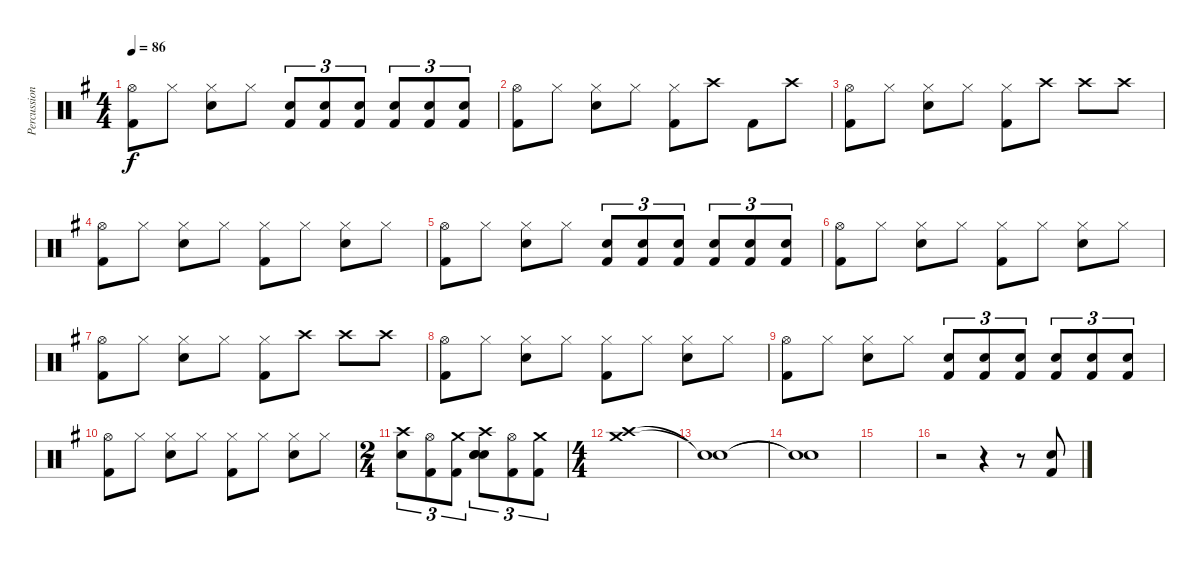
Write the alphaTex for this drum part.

\track ("Percussion" "Percussion") {instrument percussion}
\staff {score}
\articulation defaults
\ts (4 4)
\tempo 86
\clef neutral
\ks eminor
("Hi-Hat (open)" "Kick (hit) 2").8{dy f} "Hi-Hat (closed)".8 ("Hi-Hat (closed)" "Snare (hit) 2").8 "Hi-Hat (closed)".8 ("Snare (hit) 2" "Kick (hit) 2").8{tu (3 2)} ("Snare (hit) 2" "Kick (hit) 2").8{tu (3 2)} ("Snare (hit) 2" "Kick (hit) 2").8{tu (3 2)} ("Snare (hit) 2" "Kick (hit) 2").8{tu (3 2)} ("Snare (hit) 2" "Kick (hit) 2").8{tu (3 2)} ("Snare (hit) 2" "Kick (hit) 2").8{tu (3 2)} |
("Hi-Hat (open)" "Kick (hit) 2").8 "Hi-Hat (closed)".8 ("Hi-Hat (closed)" "Snare (hit) 2").8 "Hi-Hat (closed)".8 ("Hi-Hat (closed)" "Kick (hit) 2").8 "Crash high (hit)".8 "Kick (hit) 2".8 "Crash high (hit)".8 |
("Hi-Hat (open)" "Kick (hit) 2").8 "Hi-Hat (closed)".8 ("Hi-Hat (closed)" "Snare (hit) 2").8 "Hi-Hat (closed)".8 ("Hi-Hat (closed)" "Kick (hit) 2").8 "Crash high (hit)".8 "Crash high (hit)".8 "Crash high (hit)".8 |
("Hi-Hat (open)" "Kick (hit) 2").8 "Hi-Hat (closed)".8 ("Hi-Hat (closed)" "Snare (hit) 2").8 "Hi-Hat (closed)".8 ("Hi-Hat (closed)" "Kick (hit) 2").8 "Hi-Hat (closed)".8 ("Hi-Hat (closed)" "Snare (hit) 2").8 "Hi-Hat (closed)".8 |
("Hi-Hat (open)" "Kick (hit) 2").8 "Hi-Hat (closed)".8 ("Hi-Hat (closed)" "Snare (hit) 2").8 "Hi-Hat (closed)".8 ("Snare (hit) 2" "Kick (hit) 2").8{tu (3 2)} ("Snare (hit) 2" "Kick (hit) 2").8{tu (3 2)} ("Snare (hit) 2" "Kick (hit) 2").8{tu (3 2)} ("Snare (hit) 2" "Kick (hit) 2").8{tu (3 2)} ("Snare (hit) 2" "Kick (hit) 2").8{tu (3 2)} ("Snare (hit) 2" "Kick (hit) 2").8{tu (3 2)} |
("Hi-Hat (open)" "Kick (hit) 2").8 "Hi-Hat (closed)".8 ("Hi-Hat (closed)" "Snare (hit) 2").8 "Hi-Hat (closed)".8 ("Hi-Hat (closed)" "Kick (hit) 2").8 "Hi-Hat (closed)".8 ("Hi-Hat (closed)" "Snare (hit) 2").8 "Hi-Hat (closed)".8 |
("Hi-Hat (open)" "Kick (hit) 2").8 "Hi-Hat (closed)".8 ("Hi-Hat (closed)" "Snare (hit) 2").8 "Hi-Hat (closed)".8 ("Hi-Hat (closed)" "Kick (hit) 2").8 "Crash high (hit)".8 "Crash high (hit)".8 "Crash high (hit)".8 |
("Hi-Hat (open)" "Kick (hit) 2").8 "Hi-Hat (closed)".8 ("Hi-Hat (closed)" "Snare (hit) 2").8 "Hi-Hat (closed)".8 ("Hi-Hat (closed)" "Kick (hit) 2").8 "Hi-Hat (closed)".8 ("Hi-Hat (closed)" "Snare (hit) 2").8 "Hi-Hat (closed)".8 |
("Hi-Hat (open)" "Kick (hit) 2").8 "Hi-Hat (closed)".8 ("Hi-Hat (closed)" "Snare (hit) 2").8 "Hi-Hat (closed)".8 ("Snare (hit) 2" "Kick (hit) 2").8{tu (3 2)} ("Snare (hit) 2" "Kick (hit) 2").8{tu (3 2)} ("Snare (hit) 2" "Kick (hit) 2").8{tu (3 2)} ("Snare (hit) 2" "Kick (hit) 2").8{tu (3 2)} ("Snare (hit) 2" "Kick (hit) 2").8{tu (3 2)} ("Snare (hit) 2" "Kick (hit) 2").8{tu (3 2)} |
("Hi-Hat (open)" "Kick (hit) 2").8 "Hi-Hat (closed)".8 ("Hi-Hat (closed)" "Snare (hit) 2").8 "Hi-Hat (closed)".8 ("Hi-Hat (closed)" "Kick (hit) 2").8 "Hi-Hat (closed)".8 ("Hi-Hat (closed)" "Snare (hit) 2").8 "Hi-Hat (closed)".8 |
\ts (2 4)
("Crash high (hit)" "Snare (hit) 2").8{tu (3 2)} ("Hi-Hat (open)" "Kick (hit) 2").8{tu (3 2)} ("Crash medium (hit)" "Kick (hit) 2").8{tu (3 2)} ("Crash high (hit)" "Snare (hit) 2" "Snare (hit) 2" "Snare (hit) 2").8{tu (3 2)} ("Hi-Hat (open)" "Kick (hit) 2").8{tu (3 2)} ("Crash medium (hit)" "Kick (hit) 2").8{tu (3 2)} |
\ts (4 4)
("Crash high (hit)" "Crash medium (hit)").1 |
("Snare (hit)"{t} "Snare (hit)"{t}).1 |
("Snare (hit)"{t} "Snare (hit)"{t}).1 |
|
r.2 r.4 r.8 ("Snare (hit) 2" "Kick (hit) 2").8
